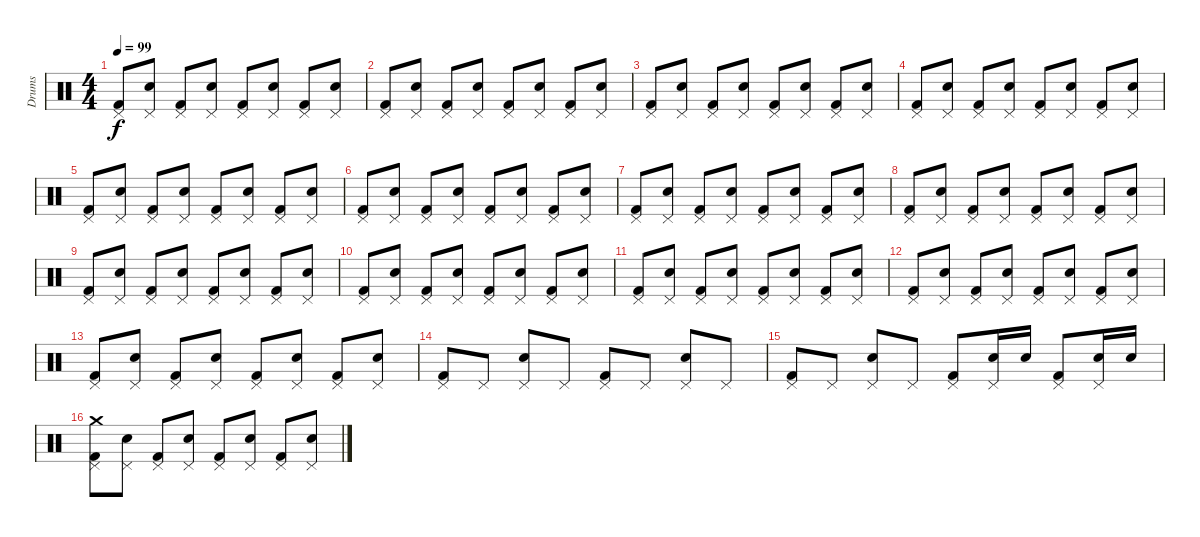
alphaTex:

\track ("Drums" "Drums") {instrument percussion}
\staff {score}
\articulation defaults
\ts (4 4)
\tempo 99
\clef neutral
\ks c
("Pedal Hi-Hat (hit)" "Kick (hit) 2").8{dy f} ("Pedal Hi-Hat (hit)" "Snare (hit) 2").8 ("Pedal Hi-Hat (hit)" "Kick (hit) 2").8 ("Pedal Hi-Hat (hit)" "Snare (hit) 2").8 ("Pedal Hi-Hat (hit)" "Kick (hit) 2").8 ("Pedal Hi-Hat (hit)" "Snare (hit) 2").8 ("Pedal Hi-Hat (hit)" "Kick (hit) 2").8 ("Pedal Hi-Hat (hit)" "Snare (hit) 2").8 |
("Pedal Hi-Hat (hit)" "Kick (hit) 2").8 ("Pedal Hi-Hat (hit)" "Snare (hit) 2").8 ("Pedal Hi-Hat (hit)" "Kick (hit) 2").8 ("Pedal Hi-Hat (hit)" "Snare (hit) 2").8 ("Pedal Hi-Hat (hit)" "Kick (hit) 2").8 ("Pedal Hi-Hat (hit)" "Snare (hit) 2").8 ("Pedal Hi-Hat (hit)" "Kick (hit) 2").8 ("Pedal Hi-Hat (hit)" "Snare (hit) 2").8 |
("Pedal Hi-Hat (hit)" "Kick (hit) 2").8 ("Pedal Hi-Hat (hit)" "Snare (hit) 2").8 ("Pedal Hi-Hat (hit)" "Kick (hit) 2").8 ("Pedal Hi-Hat (hit)" "Snare (hit) 2").8 ("Pedal Hi-Hat (hit)" "Kick (hit) 2").8 ("Pedal Hi-Hat (hit)" "Snare (hit) 2").8 ("Pedal Hi-Hat (hit)" "Kick (hit) 2").8 ("Pedal Hi-Hat (hit)" "Snare (hit) 2").8 |
("Pedal Hi-Hat (hit)" "Kick (hit) 2").8 ("Pedal Hi-Hat (hit)" "Snare (hit) 2").8 ("Pedal Hi-Hat (hit)" "Kick (hit) 2").8 ("Pedal Hi-Hat (hit)" "Snare (hit) 2").8 ("Pedal Hi-Hat (hit)" "Kick (hit) 2").8 ("Pedal Hi-Hat (hit)" "Snare (hit) 2").8 ("Pedal Hi-Hat (hit)" "Kick (hit) 2").8 ("Pedal Hi-Hat (hit)" "Snare (hit) 2").8 |
("Pedal Hi-Hat (hit)" "Kick (hit) 2").8 ("Pedal Hi-Hat (hit)" "Snare (hit) 2").8 ("Pedal Hi-Hat (hit)" "Kick (hit) 2").8 ("Pedal Hi-Hat (hit)" "Snare (hit) 2").8 ("Pedal Hi-Hat (hit)" "Kick (hit) 2").8 ("Pedal Hi-Hat (hit)" "Snare (hit) 2").8 ("Pedal Hi-Hat (hit)" "Kick (hit) 2").8 ("Pedal Hi-Hat (hit)" "Snare (hit) 2").8 |
("Pedal Hi-Hat (hit)" "Kick (hit) 2").8 ("Pedal Hi-Hat (hit)" "Snare (hit) 2").8 ("Pedal Hi-Hat (hit)" "Kick (hit) 2").8 ("Pedal Hi-Hat (hit)" "Snare (hit) 2").8 ("Pedal Hi-Hat (hit)" "Kick (hit) 2").8 ("Pedal Hi-Hat (hit)" "Snare (hit) 2").8 ("Pedal Hi-Hat (hit)" "Kick (hit) 2").8 ("Pedal Hi-Hat (hit)" "Snare (hit) 2").8 |
("Pedal Hi-Hat (hit)" "Kick (hit) 2").8 ("Pedal Hi-Hat (hit)" "Snare (hit) 2").8 ("Pedal Hi-Hat (hit)" "Kick (hit) 2").8 ("Pedal Hi-Hat (hit)" "Snare (hit) 2").8 ("Pedal Hi-Hat (hit)" "Kick (hit) 2").8 ("Pedal Hi-Hat (hit)" "Snare (hit) 2").8 ("Pedal Hi-Hat (hit)" "Kick (hit) 2").8 ("Pedal Hi-Hat (hit)" "Snare (hit) 2").8 |
("Pedal Hi-Hat (hit)" "Kick (hit) 2").8 ("Pedal Hi-Hat (hit)" "Snare (hit) 2").8 ("Pedal Hi-Hat (hit)" "Kick (hit) 2").8 ("Pedal Hi-Hat (hit)" "Snare (hit) 2").8 ("Pedal Hi-Hat (hit)" "Kick (hit) 2").8 ("Pedal Hi-Hat (hit)" "Snare (hit) 2").8 ("Pedal Hi-Hat (hit)" "Kick (hit) 2").8 ("Pedal Hi-Hat (hit)" "Snare (hit) 2").8 |
("Pedal Hi-Hat (hit)" "Kick (hit) 2").8 ("Pedal Hi-Hat (hit)" "Snare (hit) 2").8 ("Pedal Hi-Hat (hit)" "Kick (hit) 2").8 ("Pedal Hi-Hat (hit)" "Snare (hit) 2").8 ("Pedal Hi-Hat (hit)" "Kick (hit) 2").8 ("Pedal Hi-Hat (hit)" "Snare (hit) 2").8 ("Pedal Hi-Hat (hit)" "Kick (hit) 2").8 ("Pedal Hi-Hat (hit)" "Snare (hit) 2").8 |
("Pedal Hi-Hat (hit)" "Kick (hit) 2").8 ("Pedal Hi-Hat (hit)" "Snare (hit) 2").8 ("Pedal Hi-Hat (hit)" "Kick (hit) 2").8 ("Pedal Hi-Hat (hit)" "Snare (hit) 2").8 ("Pedal Hi-Hat (hit)" "Kick (hit) 2").8 ("Pedal Hi-Hat (hit)" "Snare (hit) 2").8 ("Pedal Hi-Hat (hit)" "Kick (hit) 2").8 ("Pedal Hi-Hat (hit)" "Snare (hit) 2").8 |
("Pedal Hi-Hat (hit)" "Kick (hit) 2").8 ("Pedal Hi-Hat (hit)" "Snare (hit) 2").8 ("Pedal Hi-Hat (hit)" "Kick (hit) 2").8 ("Pedal Hi-Hat (hit)" "Snare (hit) 2").8 ("Pedal Hi-Hat (hit)" "Kick (hit) 2").8 ("Pedal Hi-Hat (hit)" "Snare (hit) 2").8 ("Pedal Hi-Hat (hit)" "Kick (hit) 2").8 ("Pedal Hi-Hat (hit)" "Snare (hit) 2").8 |
("Pedal Hi-Hat (hit)" "Kick (hit) 2").8 ("Pedal Hi-Hat (hit)" "Snare (hit) 2").8 ("Pedal Hi-Hat (hit)" "Kick (hit) 2").8 ("Pedal Hi-Hat (hit)" "Snare (hit) 2").8 ("Pedal Hi-Hat (hit)" "Kick (hit) 2").8 ("Pedal Hi-Hat (hit)" "Snare (hit) 2").8 ("Pedal Hi-Hat (hit)" "Kick (hit) 2").8 ("Pedal Hi-Hat (hit)" "Snare (hit) 2").8 |
("Pedal Hi-Hat (hit)" "Kick (hit) 2").8 ("Pedal Hi-Hat (hit)" "Snare (hit) 2").8 ("Pedal Hi-Hat (hit)" "Kick (hit) 2").8 ("Pedal Hi-Hat (hit)" "Snare (hit) 2").8 ("Pedal Hi-Hat (hit)" "Kick (hit) 2").8 ("Pedal Hi-Hat (hit)" "Snare (hit) 2").8 ("Pedal Hi-Hat (hit)" "Kick (hit) 2").8 ("Pedal Hi-Hat (hit)" "Snare (hit) 2").8 |
("Pedal Hi-Hat (hit)" "Kick (hit) 2").8 "Pedal Hi-Hat (hit)".8 ("Pedal Hi-Hat (hit)" "Snare (hit) 2").8 "Pedal Hi-Hat (hit)".8 ("Pedal Hi-Hat (hit)" "Kick (hit) 2").8 "Pedal Hi-Hat (hit)".8 ("Pedal Hi-Hat (hit)" "Snare (hit) 2").8 "Pedal Hi-Hat (hit)".8 |
("Pedal Hi-Hat (hit)" "Kick (hit) 2").8 "Pedal Hi-Hat (hit)".8 ("Pedal Hi-Hat (hit)" "Snare (hit) 2").8 "Pedal Hi-Hat (hit)".8 ("Pedal Hi-Hat (hit)" "Kick (hit) 2").8 ("Pedal Hi-Hat (hit)" "Snare (hit) 2").16 "Snare (hit) 2".16 ("Pedal Hi-Hat (hit)" "Kick (hit) 2").8 ("Pedal Hi-Hat (hit)" "Snare (hit) 2").16 "Snare (hit) 2".16 |
("Pedal Hi-Hat (hit)" "Crash medium (hit)" "Kick (hit) 2").8 ("Pedal Hi-Hat (hit)" "Snare (hit) 2").8 ("Pedal Hi-Hat (hit)" "Kick (hit) 2").8 ("Pedal Hi-Hat (hit)" "Snare (hit) 2").8 ("Pedal Hi-Hat (hit)" "Kick (hit) 2").8 ("Pedal Hi-Hat (hit)" "Snare (hit) 2").8 ("Pedal Hi-Hat (hit)" "Kick (hit) 2").8 ("Pedal Hi-Hat (hit)" "Snare (hit) 2").8
